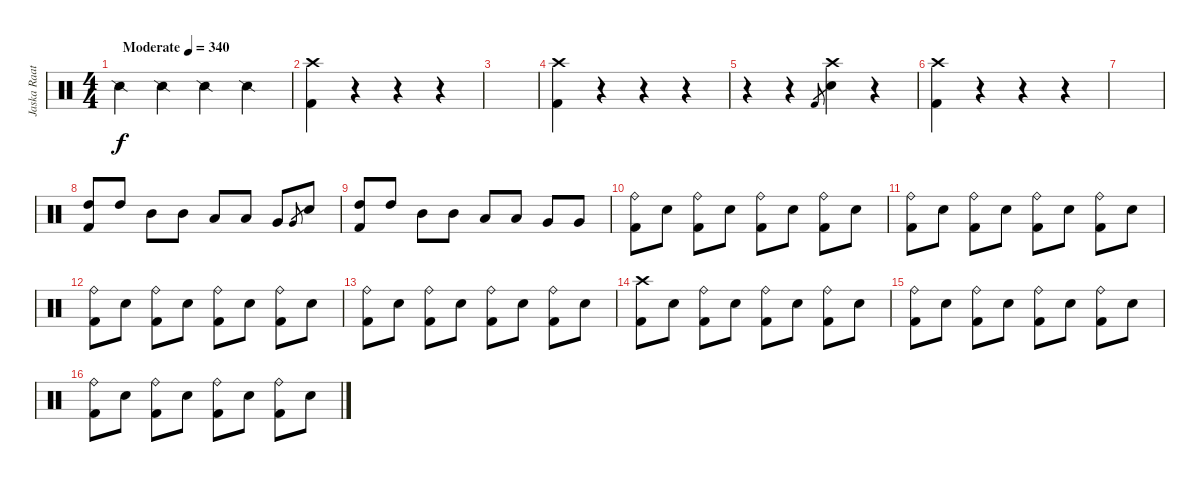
\track ("Jaska Raatkinen" "Jaska Raat") {instrument percussion}
\staff {score}
\articulation defaults
\ts (4 4)
\tempo (340 "Moderate")
\clef neutral
\ks c "Snare (side stick) 2".4{dy f} "Snare (side stick) 2".4 "Snare (side stick) 2".4 "Snare (side stick) 2".4
|
("Crash high (hit)" "Kick (hit) 2").4 r.4 r.4 r.4 |
|
("Crash high (hit)" "Kick (hit) 2").4 r.4 r.4 r.4 |
r.4 r.4 "Kick (hit) 2".8{gr} ("Crash high (hit)" "Snare (hit) 2").4 r.4 |
("Crash high (hit)" "Kick (hit) 2").4 r.4 r.4 r.4 |
|
("High Tom (hit)" "Kick (hit) 2").8 "High Tom (hit)".8 "Mid Tom (hit)".8 "Mid Tom (hit)".8 "Low Tom (hit)".8 "Low Tom (hit)".8 "Very Low Tom (hit)".8 "Very Low Tom (hit)".8{gr} "Snare (hit) 2".8 |
("High Tom (hit)" "Kick (hit) 2").8 "High Tom (hit)".8 "Mid Tom (hit)".8 "Mid Tom (hit)".8 "Low Tom (hit)".8 "Low Tom (hit)".8 "Very Low Tom (hit)".8 "Very Low Tom (hit)".8 |
("Ride (bell)" "Kick (hit) 2").8 "Snare (hit) 2".8 ("Ride (bell)" "Kick (hit) 2").8 "Snare (hit) 2".8 ("Ride (bell)" "Kick (hit) 2").8 "Snare (hit) 2".8 ("Ride (bell)" "Kick (hit) 2").8 "Snare (hit) 2".8 |
("Ride (bell)" "Kick (hit) 2").8 "Snare (hit) 2".8 ("Ride (bell)" "Kick (hit) 2").8 "Snare (hit) 2".8 ("Ride (bell)" "Kick (hit) 2").8 "Snare (hit) 2".8 ("Ride (bell)" "Kick (hit) 2").8 "Snare (hit) 2".8 |
("Ride (bell)" "Kick (hit) 2").8 "Snare (hit) 2".8 ("Ride (bell)" "Kick (hit) 2").8 "Snare (hit) 2".8 ("Ride (bell)" "Kick (hit) 2").8 "Snare (hit) 2".8 ("Ride (bell)" "Kick (hit) 2").8 "Snare (hit) 2".8 |
("Ride (bell)" "Kick (hit) 2").8 "Snare (hit) 2".8 ("Ride (bell)" "Kick (hit) 2").8 "Snare (hit) 2".8 ("Ride (bell)" "Kick (hit) 2").8 "Snare (hit) 2".8 ("Ride (bell)" "Kick (hit) 2").8 "Snare (hit) 2".8 |
("Crash high (hit)" "Kick (hit) 2").8 "Snare (hit) 2".8 ("Ride (bell)" "Kick (hit) 2").8 "Snare (hit) 2".8 ("Ride (bell)" "Kick (hit) 2").8 "Snare (hit) 2".8 ("Ride (bell)" "Kick (hit) 2").8 "Snare (hit) 2".8 |
("Ride (bell)" "Kick (hit) 2").8 "Snare (hit) 2".8 ("Ride (bell)" "Kick (hit) 2").8 "Snare (hit) 2".8 ("Ride (bell)" "Kick (hit) 2").8 "Snare (hit) 2".8 ("Ride (bell)" "Kick (hit) 2").8 "Snare (hit) 2".8 |
("Ride (bell)" "Kick (hit) 2").8 "Snare (hit) 2".8 ("Ride (bell)" "Kick (hit) 2").8 "Snare (hit) 2".8 ("Ride (bell)" "Kick (hit) 2").8 "Snare (hit) 2".8 ("Ride (bell)" "Kick (hit) 2").8 "Snare (hit) 2".8
